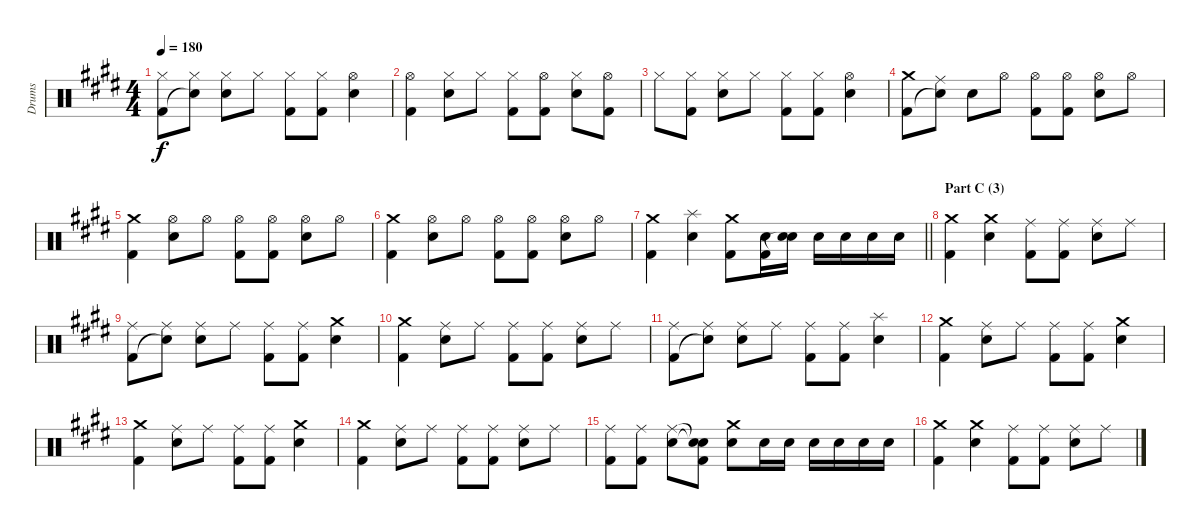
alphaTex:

\track ("Drums" "Drums") {instrument percussion}
\staff {score}
\articulation defaults
\ts (4 4)
\tempo 180
\clef neutral
\ks e
("Hi-Hat (closed)" "Kick (hit) 2").8{dy f} ("Hi-Hat (closed)" "Snare (hit)"{t}).8 ("Hi-Hat (closed)" "Electric Snare (hit)").8 "Hi-Hat (closed)".8 ("Hi-Hat (closed)" "Kick (hit) 2").8 ("Hi-Hat (closed)" "Kick (hit) 2").8 ("Hi-Hat (open)" "Electric Snare (hit)").4 |
("Hi-Hat (open)" "Kick (hit) 2").4 ("Hi-Hat (closed)" "Electric Snare (hit)").8 "Hi-Hat (closed)".8 ("Hi-Hat (closed)" "Kick (hit) 2").8 ("Hi-Hat (open)" "Kick (hit) 2").8 ("Hi-Hat (closed)" "Electric Snare (hit)").8 ("Hi-Hat (open)" "Kick (hit) 2").8 |
"Hi-Hat (closed)".8 ("Hi-Hat (closed)" "Kick (hit) 2").8 ("Hi-Hat (closed)" "Electric Snare (hit)").8 "Hi-Hat (closed)".8 ("Hi-Hat (closed)" "Kick (hit) 2").8 ("Hi-Hat (closed)" "Kick (hit) 2").8 ("Hi-Hat (open)" "Electric Snare (hit)").4 |
("Crash medium (hit)" "Kick (hit) 2").8 ("Ride (middle)" "Snare (hit)"{t}).8 "Electric Snare (hit)".8 "Hi-Hat (open)".8 ("Hi-Hat (open)" "Kick (hit) 2").8 ("Hi-Hat (open)" "Kick (hit) 2").8 ("Hi-Hat (open)" "Electric Snare (hit)").8 "Hi-Hat (open)".8 |
("Crash medium (hit)" "Kick (hit) 2").4 ("Hi-Hat (open)" "Electric Snare (hit)").8 "Hi-Hat (open)".8 ("Hi-Hat (open)" "Kick (hit) 2").8 ("Hi-Hat (open)" "Kick (hit) 2").8 ("Hi-Hat (open)" "Electric Snare (hit)").8 "Hi-Hat (open)".8 |
("Crash medium (hit)" "Kick (hit) 2").4 ("Hi-Hat (open)" "Electric Snare (hit)").8 "Hi-Hat (open)".8 ("Hi-Hat (open)" "Kick (hit) 2").8 ("Hi-Hat (open)" "Kick (hit) 2").8 ("Hi-Hat (open)" "Electric Snare (hit)").8 "Hi-Hat (open)".8 |
\barLineRight lightlight
("Crash medium (hit)" "Kick (hit) 2").4 ("Splash (hit)" "Electric Snare (hit)").4 ("Crash medium (hit)" "Kick (hit) 2").8 ("Electric Snare (hit)" "Kick (hit) 2").16 ("Electric Snare (hit)" "Snare (hit)"{t}).16 "Electric Snare (hit)".16 "Electric Snare (hit)".16 "Electric Snare (hit)".16 "Electric Snare (hit)".16 |
\section ("" "Part C (3)")
("Crash medium (hit)" "Kick (hit) 2").4 ("Crash medium (hit)" "Electric Snare (hit)").4 ("Ride (middle)" "Kick (hit) 2").8 ("Ride (middle)" "Kick (hit) 2").8 ("Ride (middle)" "Electric Snare (hit)").8 "Ride (middle)".8 |
("Ride (middle)" "Kick (hit) 2").8 ("Ride (middle)" "Snare (hit)"{t}).8 ("Ride (middle)" "Electric Snare (hit)").8 "Ride (middle)".8 ("Ride (middle)" "Kick (hit) 2").8 ("Ride (middle)" "Kick (hit) 2").8 ("Crash medium (hit)" "Electric Snare (hit)").4 |
("Crash medium (hit)" "Kick (hit) 2").4 ("Ride (middle)" "Electric Snare (hit)").8 "Ride (middle)".8 ("Ride (middle)" "Kick (hit) 2").8 ("Ride (middle)" "Kick (hit) 2").8 ("Ride (middle)" "Electric Snare (hit)").8 "Ride (middle)".8 |
("Ride (middle)" "Kick (hit) 2").8 ("Ride (middle)" "Snare (hit)"{t}).8 ("Ride (middle)" "Electric Snare (hit)").8 "Ride (middle)".8 ("Ride (middle)" "Kick (hit) 2").8 ("Ride (middle)" "Kick (hit) 2").8 ("Splash (hit)" "Electric Snare (hit)").4 |
("Crash medium (hit)" "Kick (hit) 2").4 ("Ride (middle)" "Electric Snare (hit)").8 "Ride (middle)".8 ("Ride (middle)" "Kick (hit) 2").8 ("Ride (middle)" "Kick (hit) 2").8 ("Crash medium (hit)" "Electric Snare (hit)").4 |
("Crash medium (hit)" "Kick (hit) 2").4 ("Ride (middle)" "Electric Snare (hit)").8 "Ride (middle)".8 ("Ride (middle)" "Kick (hit) 2").8 ("Ride (middle)" "Kick (hit) 2").8 ("Crash medium (hit)" "Electric Snare (hit)").4 |
("Crash medium (hit)" "Kick (hit) 2").4 ("Ride (middle)" "Electric Snare (hit)").8 "Ride (middle)".8 ("Ride (middle)" "Kick (hit) 2").8 ("Ride (middle)" "Kick (hit) 2").8 ("Ride (middle)" "Electric Snare (hit)").8 "Ride (middle)".8 |
("Ride (middle)" "Kick (hit) 2").8 ("Ride (middle)" "Kick (hit) 2").8 ("Ride (middle)" "Electric Snare (hit)").8 ("Snare (hit)"{t} "Snare (hit)"{t} "Kick (hit) 2").8 ("Crash medium (hit)" "Electric Snare (hit)").8 "Electric Snare (hit)".16 "Electric Snare (hit)".16 "Electric Snare (hit)".16 "Electric Snare (hit)".16 "Electric Snare (hit)".16 "Electric Snare (hit)".16 |
("Crash medium (hit)" "Kick (hit) 2").4 ("Crash medium (hit)" "Electric Snare (hit)").4 ("Ride (middle)" "Kick (hit) 2").8 ("Ride (middle)" "Kick (hit) 2").8 ("Ride (middle)" "Electric Snare (hit)").8 "Ride (middle)".8
